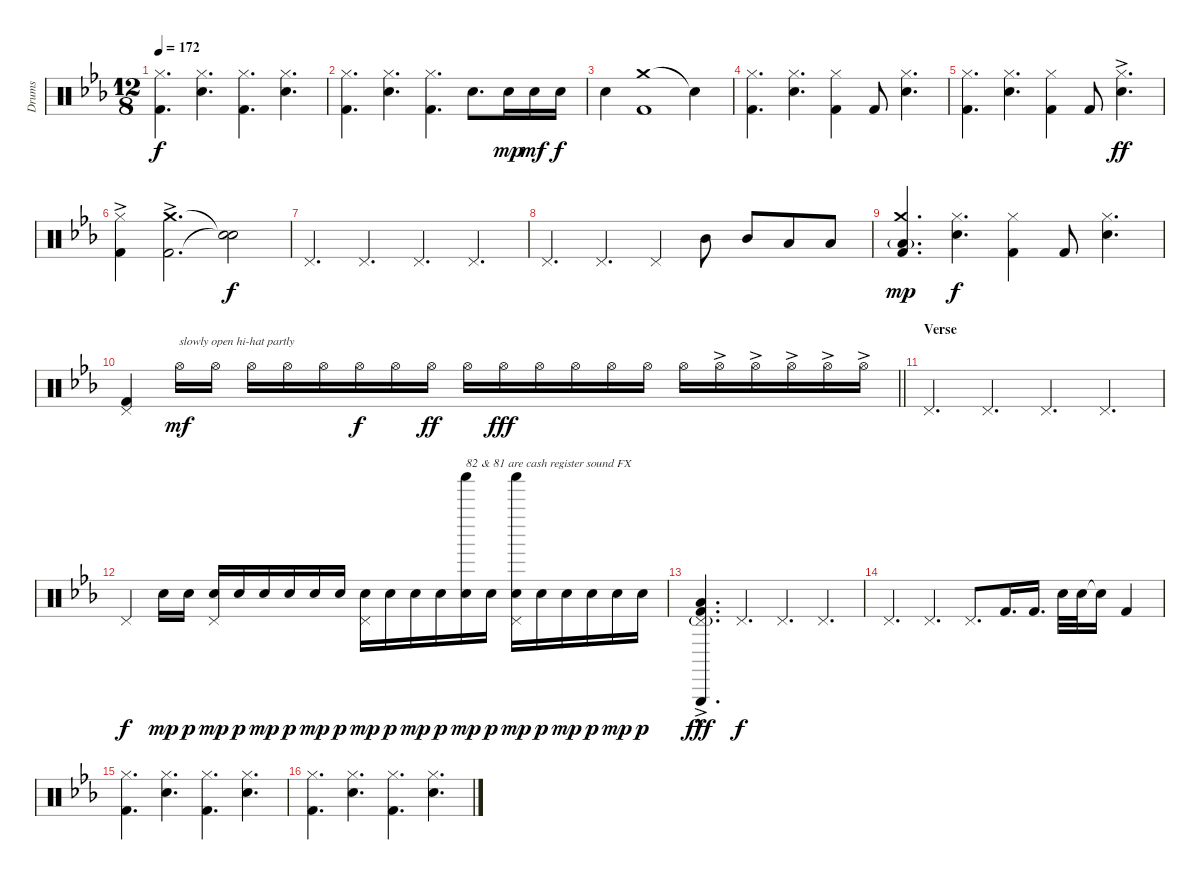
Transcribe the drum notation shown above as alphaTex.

\track ("Drums" "Drums") {instrument percussion}
\staff {score}
\articulation defaults
\ts (12 8)
\tempo 172
\clef neutral
\ks cminor
("Hi-Hat (closed)" "Kick (hit) 2").4{d dy f} ("Hi-Hat (closed)" "Electric Snare (hit)").4{d} ("Hi-Hat (closed)" "Kick (hit) 2").4{d} ("Hi-Hat (closed)" "Electric Snare (hit)").4{d} |
("Hi-Hat (closed)" "Kick (hit) 2").4{d} ("Hi-Hat (closed)" "Electric Snare (hit)").4{d} ("Hi-Hat (closed)" "Kick (hit) 2").4{d} "Electric Snare (hit)".8{d} "Electric Snare (hit)".16{dy mp} "Electric Snare (hit)".16{dy mf} "Electric Snare (hit)".16{dy f} |
"Electric Snare (hit)".4 ("Crash medium (hit)" "Kick (hit) 2").1 "Snare (hit)"{t}.4 |
("Hi-Hat (closed)" "Kick (hit) 2").4{d} ("Hi-Hat (closed)" "Electric Snare (hit)").4{d} ("Hi-Hat (closed)" "Kick (hit) 2").4 "Kick (hit) 2".8 ("Hi-Hat (closed)" "Electric Snare (hit)").4{d} |
("Hi-Hat (closed)" "Kick (hit) 2").4{d} ("Hi-Hat (closed)" "Electric Snare (hit)").4{d} ("Hi-Hat (closed)" "Kick (hit) 2").4 "Kick (hit) 2".8 ("Hi-Hat (closed)"{ac} "Electric Snare (hit)").4{d dy ff} |
("Hi-Hat (closed)" "Kick (hit) 2"{ac}).4 ("Crash medium (hit)" "Kick (hit) 2"{ac}).2{d} ("Snare (hit)"{t} "Snare (hit)"{t}).2{dy f} |
"Pedal Hi-Hat (hit)".4{d} "Pedal Hi-Hat (hit)".4{d} "Pedal Hi-Hat (hit)".4{d} "Pedal Hi-Hat (hit)".4{d} |
"Pedal Hi-Hat (hit)".4{d} "Pedal Hi-Hat (hit)".4{d} "Pedal Hi-Hat (hit)".4 "Mid Tom (hit)".8 "Mid Tom (hit)".8 "Low Tom (hit)".8 "Low Tom (hit)".8 |
("Crash medium (hit)" "Low Floor Tom (hit)"{g} "Kick (hit) 2").4{d dy mp} ("Hi-Hat (closed)" "Electric Snare (hit)").4{d dy f} ("Hi-Hat (closed)" "Kick (hit) 2").4 "Kick (hit) 2".8 ("Hi-Hat (closed)" "Electric Snare (hit)").4{d} |
\barLineRight lightlight
("Pedal Hi-Hat (hit)" "Kick (hit) 2").4 "Hi-Hat (open)".16{txt "slowly open hi-hat partly" dy mf} "Hi-Hat (open)".16 "Hi-Hat (open)".16 "Hi-Hat (open)".16 "Hi-Hat (open)".16 "Hi-Hat (open)".16{dy f} "Hi-Hat (open)".16 "Hi-Hat (open)".16{dy ff} "Hi-Hat (open)".16 "Hi-Hat (open)".16{dy fff} "Hi-Hat (open)".16 "Hi-Hat (open)".16 "Hi-Hat (open)".16 "Hi-Hat (open)".16 "Hi-Hat (open)".16 "Hi-Hat (open)"{ac}.16 "Hi-Hat (open)"{ac}.16 "Hi-Hat (open)"{ac}.16 "Hi-Hat (open)"{ac}.16 "Hi-Hat (open)"{ac}.16 |
\section ("" "Verse")
"Pedal Hi-Hat (hit)".4{d} "Pedal Hi-Hat (hit)".4{d} "Pedal Hi-Hat (hit)".4{d} "Pedal Hi-Hat (hit)".4{d} |
"Pedal Hi-Hat (hit)".4{dy f} "Electric Snare (hit)".16{dy mp} "Electric Snare (hit)".16{dy p} ("Pedal Hi-Hat (hit)" "Electric Snare (hit)").16{dy mp} "Electric Snare (hit)".16{dy p} "Electric Snare (hit)".16{dy mp} "Electric Snare (hit)".16{dy p} "Electric Snare (hit)".16{dy mp} "Electric Snare (hit)".16{dy p} ("Pedal Hi-Hat (hit)" "Electric Snare (hit)").16{dy mp} "Electric Snare (hit)".16{dy p} "Electric Snare (hit)".16{dy mp} "Electric Snare (hit)".16{dy p} ("Shaker (hit)" "Electric Snare (hit)").16{txt "82 & 81 are cash register sound FX" dy mp} "Electric Snare (hit)".16{dy p} ("Shaker (hit)" "Pedal Hi-Hat (hit)" "Electric Snare (hit)").16{dy mp} "Electric Snare (hit)".16{dy p} "Electric Snare (hit)".16{dy mp} "Electric Snare (hit)".16{dy p} "Electric Snare (hit)".16{dy mp} "Electric Snare (hit)".16{dy p} |
("Triangle (hit)"{ac} "Pedal Hi-Hat (hit)"{g} "Low Floor Tom (hit)"{hac} "Kick (hit) 2"{hac}).4{d dy fff} "Pedal Hi-Hat (hit)".4{d dy f} "Pedal Hi-Hat (hit)".4{d} "Pedal Hi-Hat (hit)".4{d} |
"Pedal Hi-Hat (hit)".4{d} "Pedal Hi-Hat (hit)".4{d} "Pedal Hi-Hat (hit)".8{d} "Kick (hit) 2".16{d} "Kick (hit) 2".16{d} "Electric Snare (hit)".32 "Electric Snare (hit)".32 "Snare (hit)"{t}.16 "Kick (hit) 2".4 |
("Hi-Hat (closed)" "Kick (hit) 2").4{d} ("Hi-Hat (closed)" "Electric Snare (hit)").4{d} ("Hi-Hat (closed)" "Kick (hit) 2").4{d} ("Hi-Hat (closed)" "Electric Snare (hit)").4{d} |
("Hi-Hat (closed)" "Kick (hit) 2").4{d} ("Hi-Hat (closed)" "Electric Snare (hit)").4{d} ("Hi-Hat (closed)" "Kick (hit) 2").4{d} ("Hi-Hat (closed)" "Electric Snare (hit)").4{d}
